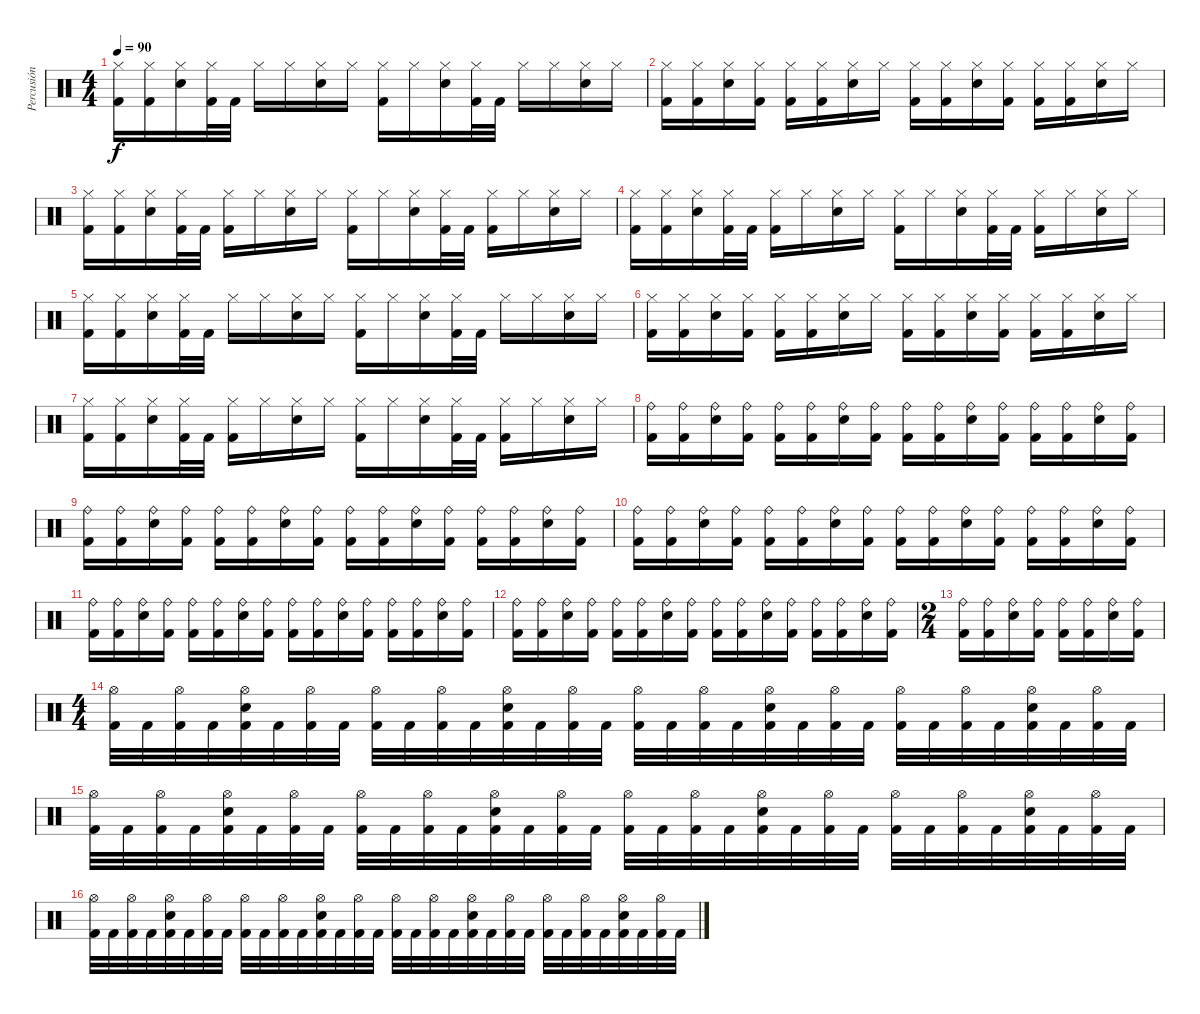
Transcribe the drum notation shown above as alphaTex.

\track ("Percusión" "Percusión") {instrument percussion}
\staff {score}
\articulation defaults
\ts (4 4)
\tempo 90
\clef neutral
\ks c
("Hi-Hat (closed)" "Kick (hit) 2").16{dy f} ("Hi-Hat (closed)" "Kick (hit) 2").16 ("Hi-Hat (closed)" "Electric Snare (hit)").16 ("Hi-Hat (closed)" "Kick (hit) 2").32 "Kick (hit) 2".32 "Hi-Hat (closed)".16 "Hi-Hat (closed)".16 ("Hi-Hat (closed)" "Electric Snare (hit)").16 "Hi-Hat (closed)".16 ("Hi-Hat (closed)" "Kick (hit) 2").16 "Hi-Hat (closed)".16 ("Hi-Hat (closed)" "Electric Snare (hit)").16 ("Hi-Hat (closed)" "Kick (hit) 2").32 "Kick (hit) 2".32 "Hi-Hat (closed)".16 "Hi-Hat (closed)".16 ("Hi-Hat (closed)" "Electric Snare (hit)").16 "Hi-Hat (closed)".16 |
("Hi-Hat (closed)" "Kick (hit) 2").16 ("Hi-Hat (closed)" "Kick (hit) 2").16 ("Hi-Hat (closed)" "Electric Snare (hit)").16 ("Hi-Hat (closed)" "Kick (hit) 2").16 ("Hi-Hat (closed)" "Kick (hit) 2").16 ("Hi-Hat (closed)" "Kick (hit) 2").16 ("Hi-Hat (closed)" "Electric Snare (hit)").16 "Hi-Hat (closed)".16 ("Hi-Hat (closed)" "Kick (hit) 2").16 ("Hi-Hat (closed)" "Kick (hit) 2").16 ("Hi-Hat (closed)" "Electric Snare (hit)").16 ("Hi-Hat (closed)" "Kick (hit) 2").16 ("Hi-Hat (closed)" "Kick (hit) 2").16 ("Hi-Hat (closed)" "Kick (hit) 2").16 ("Hi-Hat (closed)" "Electric Snare (hit)").16 "Hi-Hat (closed)".16 |
("Hi-Hat (closed)" "Kick (hit) 2").16 ("Hi-Hat (closed)" "Kick (hit) 2").16 ("Hi-Hat (closed)" "Electric Snare (hit)").16 ("Hi-Hat (closed)" "Kick (hit) 2").32 "Kick (hit) 2".32 ("Hi-Hat (closed)" "Kick (hit) 2").16 "Hi-Hat (closed)".16 ("Hi-Hat (closed)" "Electric Snare (hit)").16 "Hi-Hat (closed)".16 ("Hi-Hat (closed)" "Kick (hit) 2").16 "Hi-Hat (closed)".16 ("Hi-Hat (closed)" "Electric Snare (hit)").16 ("Hi-Hat (closed)" "Kick (hit) 2").32 "Kick (hit) 2".32 ("Hi-Hat (closed)" "Kick (hit) 2").16 "Hi-Hat (closed)".16 ("Hi-Hat (closed)" "Electric Snare (hit)").16 "Hi-Hat (closed)".16 |
("Hi-Hat (closed)" "Kick (hit) 2").16 ("Hi-Hat (closed)" "Kick (hit) 2").16 ("Hi-Hat (closed)" "Electric Snare (hit)").16 ("Hi-Hat (closed)" "Kick (hit) 2").32 "Kick (hit) 2".32 ("Hi-Hat (closed)" "Kick (hit) 2").16 "Hi-Hat (closed)".16 ("Hi-Hat (closed)" "Electric Snare (hit)").16 "Hi-Hat (closed)".16 ("Hi-Hat (closed)" "Kick (hit) 2").16 "Hi-Hat (closed)".16 ("Hi-Hat (closed)" "Electric Snare (hit)").16 ("Hi-Hat (closed)" "Kick (hit) 2").32 "Kick (hit) 2".32 ("Hi-Hat (closed)" "Kick (hit) 2").16 "Hi-Hat (closed)".16 ("Hi-Hat (closed)" "Electric Snare (hit)").16 "Hi-Hat (closed)".16 |
("Hi-Hat (closed)" "Kick (hit) 2").16 ("Hi-Hat (closed)" "Kick (hit) 2").16 ("Hi-Hat (closed)" "Electric Snare (hit)").16 ("Hi-Hat (closed)" "Kick (hit) 2").32 "Kick (hit) 2".32 "Hi-Hat (closed)".16 "Hi-Hat (closed)".16 ("Hi-Hat (closed)" "Electric Snare (hit)").16 "Hi-Hat (closed)".16 ("Hi-Hat (closed)" "Kick (hit) 2").16 "Hi-Hat (closed)".16 ("Hi-Hat (closed)" "Electric Snare (hit)").16 ("Hi-Hat (closed)" "Kick (hit) 2").32 "Kick (hit) 2".32 "Hi-Hat (closed)".16 "Hi-Hat (closed)".16 ("Hi-Hat (closed)" "Electric Snare (hit)").16 "Hi-Hat (closed)".16 |
("Hi-Hat (closed)" "Kick (hit) 2").16 ("Hi-Hat (closed)" "Kick (hit) 2").16 ("Hi-Hat (closed)" "Electric Snare (hit)").16 ("Hi-Hat (closed)" "Kick (hit) 2").16 ("Hi-Hat (closed)" "Kick (hit) 2").16 ("Hi-Hat (closed)" "Kick (hit) 2").16 ("Hi-Hat (closed)" "Electric Snare (hit)").16 "Hi-Hat (closed)".16 ("Hi-Hat (closed)" "Kick (hit) 2").16 ("Hi-Hat (closed)" "Kick (hit) 2").16 ("Hi-Hat (closed)" "Electric Snare (hit)").16 ("Hi-Hat (closed)" "Kick (hit) 2").16 ("Hi-Hat (closed)" "Kick (hit) 2").16 ("Hi-Hat (closed)" "Kick (hit) 2").16 ("Hi-Hat (closed)" "Electric Snare (hit)").16 "Hi-Hat (closed)".16 |
("Hi-Hat (closed)" "Kick (hit) 2").16 ("Hi-Hat (closed)" "Kick (hit) 2").16 ("Hi-Hat (closed)" "Electric Snare (hit)").16 ("Hi-Hat (closed)" "Kick (hit) 2").32 "Kick (hit) 2".32 ("Hi-Hat (closed)" "Kick (hit) 2").16 "Hi-Hat (closed)".16 ("Hi-Hat (closed)" "Electric Snare (hit)").16 "Hi-Hat (closed)".16 ("Hi-Hat (closed)" "Kick (hit) 2").16 "Hi-Hat (closed)".16 ("Hi-Hat (closed)" "Electric Snare (hit)").16 ("Hi-Hat (closed)" "Kick (hit) 2").32 "Kick (hit) 2".32 ("Hi-Hat (closed)" "Kick (hit) 2").16 "Hi-Hat (closed)".16 ("Hi-Hat (closed)" "Electric Snare (hit)").16 "Hi-Hat (closed)".16 |
("Ride (bell)" "Kick (hit) 2").16 ("Ride (bell)" "Kick (hit) 2").16 ("Ride (bell)" "Electric Snare (hit)").16 ("Ride (bell)" "Kick (hit) 2").16 ("Ride (bell)" "Kick (hit) 2").16 ("Ride (bell)" "Kick (hit) 2").16 ("Ride (bell)" "Electric Snare (hit)").16 ("Ride (bell)" "Kick (hit) 2").16 ("Ride (bell)" "Kick (hit) 2").16 ("Ride (bell)" "Kick (hit) 2").16 ("Ride (bell)" "Electric Snare (hit)").16 ("Ride (bell)" "Kick (hit) 2").16 ("Ride (bell)" "Kick (hit) 2").16 ("Ride (bell)" "Kick (hit) 2").16 ("Ride (bell)" "Electric Snare (hit)").16 ("Ride (bell)" "Kick (hit) 2").16 |
("Ride (bell)" "Kick (hit) 2").16 ("Ride (bell)" "Kick (hit) 2").16 ("Ride (bell)" "Electric Snare (hit)").16 ("Ride (bell)" "Kick (hit) 2").16 ("Ride (bell)" "Kick (hit) 2").16 ("Ride (bell)" "Kick (hit) 2").16 ("Ride (bell)" "Electric Snare (hit)").16 ("Ride (bell)" "Kick (hit) 2").16 ("Ride (bell)" "Kick (hit) 2").16 ("Ride (bell)" "Kick (hit) 2").16 ("Ride (bell)" "Electric Snare (hit)").16 ("Ride (bell)" "Kick (hit) 2").16 ("Ride (bell)" "Kick (hit) 2").16 ("Ride (bell)" "Kick (hit) 2").16 ("Ride (bell)" "Electric Snare (hit)").16 ("Ride (bell)" "Kick (hit) 2").16 |
("Ride (bell)" "Kick (hit) 2").16 ("Ride (bell)" "Kick (hit) 2").16 ("Ride (bell)" "Electric Snare (hit)").16 ("Ride (bell)" "Kick (hit) 2").16 ("Ride (bell)" "Kick (hit) 2").16 ("Ride (bell)" "Kick (hit) 2").16 ("Ride (bell)" "Electric Snare (hit)").16 ("Ride (bell)" "Kick (hit) 2").16 ("Ride (bell)" "Kick (hit) 2").16 ("Ride (bell)" "Kick (hit) 2").16 ("Ride (bell)" "Electric Snare (hit)").16 ("Ride (bell)" "Kick (hit) 2").16 ("Ride (bell)" "Kick (hit) 2").16 ("Ride (bell)" "Kick (hit) 2").16 ("Ride (bell)" "Electric Snare (hit)").16 ("Ride (bell)" "Kick (hit) 2").16 |
("Ride (bell)" "Kick (hit) 2").16 ("Ride (bell)" "Kick (hit) 2").16 ("Ride (bell)" "Electric Snare (hit)").16 ("Ride (bell)" "Kick (hit) 2").16 ("Ride (bell)" "Kick (hit) 2").16 ("Ride (bell)" "Kick (hit) 2").16 ("Ride (bell)" "Electric Snare (hit)").16 ("Ride (bell)" "Kick (hit) 2").16 ("Ride (bell)" "Kick (hit) 2").16 ("Ride (bell)" "Kick (hit) 2").16 ("Ride (bell)" "Electric Snare (hit)").16 ("Ride (bell)" "Kick (hit) 2").16 ("Ride (bell)" "Kick (hit) 2").16 ("Ride (bell)" "Kick (hit) 2").16 ("Ride (bell)" "Electric Snare (hit)").16 ("Ride (bell)" "Kick (hit) 2").16 |
("Ride (bell)" "Kick (hit) 2").16 ("Ride (bell)" "Kick (hit) 2").16 ("Ride (bell)" "Electric Snare (hit)").16 ("Ride (bell)" "Kick (hit) 2").16 ("Ride (bell)" "Kick (hit) 2").16 ("Ride (bell)" "Kick (hit) 2").16 ("Ride (bell)" "Electric Snare (hit)").16 ("Ride (bell)" "Kick (hit) 2").16 ("Ride (bell)" "Kick (hit) 2").16 ("Ride (bell)" "Kick (hit) 2").16 ("Ride (bell)" "Electric Snare (hit)").16 ("Ride (bell)" "Kick (hit) 2").16 ("Ride (bell)" "Kick (hit) 2").16 ("Ride (bell)" "Kick (hit) 2").16 ("Ride (bell)" "Electric Snare (hit)").16 ("Ride (bell)" "Kick (hit) 2").16 |
\ts (2 4)
("Ride (bell)" "Kick (hit) 2").16 ("Ride (bell)" "Kick (hit) 2").16 ("Ride (bell)" "Electric Snare (hit)").16 ("Ride (bell)" "Kick (hit) 2").16 ("Ride (bell)" "Kick (hit) 2").16 ("Ride (bell)" "Kick (hit) 2").16 ("Ride (bell)" "Electric Snare (hit)").16 ("Ride (bell)" "Kick (hit) 2").16 |
\ts (4 4)
("Hi-Hat (open)" "Kick (hit) 2").32 "Kick (hit) 2".32 ("Hi-Hat (open)" "Kick (hit) 2").32 "Kick (hit) 2".32 ("Hi-Hat (open)" "Electric Snare (hit)" "Kick (hit) 2").32 "Kick (hit) 2".32 ("Hi-Hat (open)" "Kick (hit) 2").32 "Kick (hit) 2".32 ("Hi-Hat (open)" "Kick (hit) 2").32 "Kick (hit) 2".32 ("Hi-Hat (open)" "Kick (hit) 2").32 "Kick (hit) 2".32 ("Hi-Hat (open)" "Electric Snare (hit)" "Kick (hit) 2").32 "Kick (hit) 2".32 ("Hi-Hat (open)" "Kick (hit) 2").32 "Kick (hit) 2".32 ("Hi-Hat (open)" "Kick (hit) 2").32 "Kick (hit) 2".32 ("Hi-Hat (open)" "Kick (hit) 2").32 "Kick (hit) 2".32 ("Hi-Hat (open)" "Electric Snare (hit)" "Kick (hit) 2").32 "Kick (hit) 2".32 ("Hi-Hat (open)" "Kick (hit) 2").32 "Kick (hit) 2".32 ("Hi-Hat (open)" "Kick (hit) 2").32 "Kick (hit) 2".32 ("Hi-Hat (open)" "Kick (hit) 2").32 "Kick (hit) 2".32 ("Hi-Hat (open)" "Electric Snare (hit)" "Kick (hit) 2").32 "Kick (hit) 2".32 ("Hi-Hat (open)" "Kick (hit) 2").32 "Kick (hit) 2".32 |
("Hi-Hat (open)" "Kick (hit) 2").32 "Kick (hit) 2".32 ("Hi-Hat (open)" "Kick (hit) 2").32 "Kick (hit) 2".32 ("Hi-Hat (open)" "Electric Snare (hit)" "Kick (hit) 2").32 "Kick (hit) 2".32 ("Hi-Hat (open)" "Kick (hit) 2").32 "Kick (hit) 2".32 ("Hi-Hat (open)" "Kick (hit) 2").32 "Kick (hit) 2".32 ("Hi-Hat (open)" "Kick (hit) 2").32 "Kick (hit) 2".32 ("Hi-Hat (open)" "Electric Snare (hit)" "Kick (hit) 2").32 "Kick (hit) 2".32 ("Hi-Hat (open)" "Kick (hit) 2").32 "Kick (hit) 2".32 ("Hi-Hat (open)" "Kick (hit) 2").32 "Kick (hit) 2".32 ("Hi-Hat (open)" "Kick (hit) 2").32 "Kick (hit) 2".32 ("Hi-Hat (open)" "Electric Snare (hit)" "Kick (hit) 2").32 "Kick (hit) 2".32 ("Hi-Hat (open)" "Kick (hit) 2").32 "Kick (hit) 2".32 ("Hi-Hat (open)" "Kick (hit) 2").32 "Kick (hit) 2".32 ("Hi-Hat (open)" "Kick (hit) 2").32 "Kick (hit) 2".32 ("Hi-Hat (open)" "Electric Snare (hit)" "Kick (hit) 2").32 "Kick (hit) 2".32 ("Hi-Hat (open)" "Kick (hit) 2").32 "Kick (hit) 2".32 |
("Hi-Hat (open)" "Kick (hit) 2").32 "Kick (hit) 2".32 ("Hi-Hat (open)" "Kick (hit) 2").32 "Kick (hit) 2".32 ("Hi-Hat (open)" "Electric Snare (hit)" "Kick (hit) 2").32 "Kick (hit) 2".32 ("Hi-Hat (open)" "Kick (hit) 2").32 "Kick (hit) 2".32 ("Hi-Hat (open)" "Kick (hit) 2").32 "Kick (hit) 2".32 ("Hi-Hat (open)" "Kick (hit) 2").32 "Kick (hit) 2".32 ("Hi-Hat (open)" "Electric Snare (hit)" "Kick (hit) 2").32 "Kick (hit) 2".32 ("Hi-Hat (open)" "Kick (hit) 2").32 "Kick (hit) 2".32 ("Hi-Hat (open)" "Kick (hit) 2").32 "Kick (hit) 2".32 ("Hi-Hat (open)" "Kick (hit) 2").32 "Kick (hit) 2".32 ("Hi-Hat (open)" "Electric Snare (hit)" "Kick (hit) 2").32 "Kick (hit) 2".32 ("Hi-Hat (open)" "Kick (hit) 2").32 "Kick (hit) 2".32 ("Hi-Hat (open)" "Kick (hit) 2").32 "Kick (hit) 2".32 ("Hi-Hat (open)" "Kick (hit) 2").32 "Kick (hit) 2".32 ("Hi-Hat (open)" "Electric Snare (hit)" "Kick (hit) 2").32 "Kick (hit) 2".32 ("Hi-Hat (open)" "Kick (hit) 2").32 "Kick (hit) 2".32
